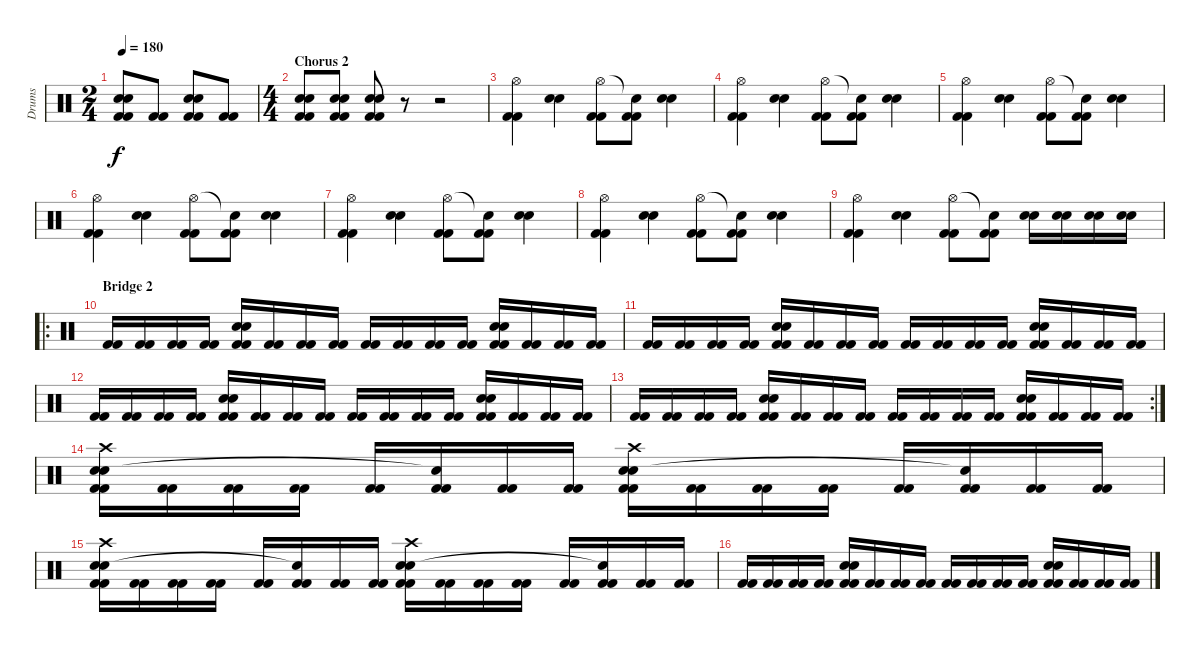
\track ("Drums" "Drums") {instrument percussion}
\staff {score}
\articulation defaults
\ts (2 4)
\tempo 180
\clef neutral
\ks c
("Kick (hit) 2" "Kick (hit) 2" "Electric Snare (hit)" "Electric Snare (hit)").8{dy f} ("Kick (hit) 2" "Kick (hit) 2").8 ("Kick (hit) 2" "Kick (hit) 2" "Electric Snare (hit)" "Electric Snare (hit)").8 ("Kick (hit) 2" "Kick (hit) 2").8 |
\ts (4 4)
\section ("" "Chorus 2")
("Kick (hit) 2" "Kick (hit) 2" "Snare (hit) 2" "Snare (hit) 2").8 ("Kick (hit) 2" "Kick (hit) 2" "Electric Snare (hit)" "Electric Snare (hit)").8 ("Kick (hit) 2" "Kick (hit) 2" "Snare (hit) 2" "Snare (hit) 2").8 r.8 r.2 |
("Kick (hit) 2" "Kick (hit) 2" "Hi-Hat (open)").4 ("Electric Snare (hit)" "Electric Snare (hit)").4 ("Kick (hit) 2" "Kick (hit) 2" "Hi-Hat (open)").8 ("Kick (hit) 2" "Kick (hit) 2" "Snare (hit)"{t}).8 ("Electric Snare (hit)" "Electric Snare (hit)").4 |
("Kick (hit) 2" "Kick (hit) 2" "Hi-Hat (open)").4 ("Electric Snare (hit)" "Electric Snare (hit)").4 ("Kick (hit) 2" "Kick (hit) 2" "Hi-Hat (open)").8 ("Kick (hit) 2" "Kick (hit) 2" "Snare (hit)"{t}).8 ("Electric Snare (hit)" "Electric Snare (hit)").4 |
("Kick (hit) 2" "Kick (hit) 2" "Hi-Hat (open)").4 ("Electric Snare (hit)" "Electric Snare (hit)").4 ("Kick (hit) 2" "Kick (hit) 2" "Hi-Hat (open)").8 ("Kick (hit) 2" "Kick (hit) 2" "Snare (hit)"{t}).8 ("Electric Snare (hit)" "Electric Snare (hit)").4 |
("Kick (hit) 2" "Kick (hit) 2" "Hi-Hat (open)").4 ("Electric Snare (hit)" "Electric Snare (hit)").4 ("Kick (hit) 2" "Kick (hit) 2" "Hi-Hat (open)").8 ("Kick (hit) 2" "Kick (hit) 2" "Snare (hit)"{t}).8 ("Electric Snare (hit)" "Electric Snare (hit)").4 |
("Kick (hit) 2" "Kick (hit) 2" "Hi-Hat (open)").4 ("Electric Snare (hit)" "Electric Snare (hit)").4 ("Kick (hit) 2" "Kick (hit) 2" "Hi-Hat (open)").8 ("Kick (hit) 2" "Kick (hit) 2" "Snare (hit)"{t}).8 ("Electric Snare (hit)" "Electric Snare (hit)").4 |
("Kick (hit) 2" "Kick (hit) 2" "Hi-Hat (open)").4 ("Electric Snare (hit)" "Electric Snare (hit)").4 ("Kick (hit) 2" "Kick (hit) 2" "Hi-Hat (open)").8 ("Kick (hit) 2" "Kick (hit) 2" "Snare (hit)"{t}).8 ("Electric Snare (hit)" "Electric Snare (hit)").4 |
("Kick (hit) 2" "Kick (hit) 2" "Hi-Hat (open)").4 ("Electric Snare (hit)" "Electric Snare (hit)").4 ("Kick (hit) 2" "Kick (hit) 2" "Hi-Hat (open)").8 ("Kick (hit) 2" "Kick (hit) 2" "Snare (hit)"{t}).8 ("Snare (hit) 2" "Snare (hit) 2").16 ("Snare (hit) 2" "Snare (hit) 2").16 ("Snare (hit) 2" "Snare (hit) 2").16 ("Snare (hit) 2" "Snare (hit) 2").16 |
\ro
\section ("" "Bridge 2")
("Kick (hit) 2" "Kick (hit) 2").16 ("Kick (hit) 2" "Kick (hit) 2").16 ("Kick (hit) 2" "Kick (hit) 2").16 ("Kick (hit) 2" "Kick (hit) 2").16 ("Electric Snare (hit)" "Electric Snare (hit)" "Kick (hit) 2" "Kick (hit) 2").16 ("Kick (hit) 2" "Kick (hit) 2").16 ("Kick (hit) 2" "Kick (hit) 2").16 ("Kick (hit) 2" "Kick (hit) 2").16 ("Kick (hit) 2" "Kick (hit) 2").16 ("Kick (hit) 2" "Kick (hit) 2").16 ("Kick (hit) 2" "Kick (hit) 2").16 ("Kick (hit) 2" "Kick (hit) 2").16 ("Electric Snare (hit)" "Electric Snare (hit)" "Kick (hit) 2" "Kick (hit) 2").16 ("Kick (hit) 2" "Kick (hit) 2").16 ("Kick (hit) 2" "Kick (hit) 2").16 ("Kick (hit) 2" "Kick (hit) 2").16 |
("Kick (hit) 2" "Kick (hit) 2").16 ("Kick (hit) 2" "Kick (hit) 2").16 ("Kick (hit) 2" "Kick (hit) 2").16 ("Kick (hit) 2" "Kick (hit) 2").16 ("Electric Snare (hit)" "Electric Snare (hit)" "Kick (hit) 2" "Kick (hit) 2").16 ("Kick (hit) 2" "Kick (hit) 2").16 ("Kick (hit) 2" "Kick (hit) 2").16 ("Kick (hit) 2" "Kick (hit) 2").16 ("Kick (hit) 2" "Kick (hit) 2").16 ("Kick (hit) 2" "Kick (hit) 2").16 ("Kick (hit) 2" "Kick (hit) 2").16 ("Kick (hit) 2" "Kick (hit) 2").16 ("Electric Snare (hit)" "Electric Snare (hit)" "Kick (hit) 2" "Kick (hit) 2").16 ("Kick (hit) 2" "Kick (hit) 2").16 ("Kick (hit) 2" "Kick (hit) 2").16 ("Kick (hit) 2" "Kick (hit) 2").16 |
("Kick (hit) 2" "Kick (hit) 2").16 ("Kick (hit) 2" "Kick (hit) 2").16 ("Kick (hit) 2" "Kick (hit) 2").16 ("Kick (hit) 2" "Kick (hit) 2").16 ("Electric Snare (hit)" "Electric Snare (hit)" "Kick (hit) 2" "Kick (hit) 2").16 ("Kick (hit) 2" "Kick (hit) 2").16 ("Kick (hit) 2" "Kick (hit) 2").16 ("Kick (hit) 2" "Kick (hit) 2").16 ("Kick (hit) 2" "Kick (hit) 2").16 ("Kick (hit) 2" "Kick (hit) 2").16 ("Kick (hit) 2" "Kick (hit) 2").16 ("Kick (hit) 2" "Kick (hit) 2").16 ("Electric Snare (hit)" "Electric Snare (hit)" "Kick (hit) 2" "Kick (hit) 2").16 ("Kick (hit) 2" "Kick (hit) 2").16 ("Kick (hit) 2" "Kick (hit) 2").16 ("Kick (hit) 2" "Kick (hit) 2").16 |
\rc 2
("Kick (hit) 2" "Kick (hit) 2").16 ("Kick (hit) 2" "Kick (hit) 2").16 ("Kick (hit) 2" "Kick (hit) 2").16 ("Kick (hit) 2" "Kick (hit) 2").16 ("Electric Snare (hit)" "Electric Snare (hit)" "Kick (hit) 2" "Kick (hit) 2").16 ("Kick (hit) 2" "Kick (hit) 2").16 ("Kick (hit) 2" "Kick (hit) 2").16 ("Kick (hit) 2" "Kick (hit) 2").16 ("Kick (hit) 2" "Kick (hit) 2").16 ("Kick (hit) 2" "Kick (hit) 2").16 ("Kick (hit) 2" "Kick (hit) 2").16 ("Kick (hit) 2" "Kick (hit) 2").16 ("Electric Snare (hit)" "Electric Snare (hit)" "Kick (hit) 2" "Kick (hit) 2").16 ("Kick (hit) 2" "Kick (hit) 2").16 ("Kick (hit) 2" "Kick (hit) 2").16 ("Kick (hit) 2" "Kick (hit) 2").16 |
("Kick (hit) 2" "Kick (hit) 2" "Snare (hit) 2" "Snare (hit) 2" "Crash high (hit)").16 ("Kick (hit) 2" "Kick (hit) 2").16 ("Kick (hit) 2" "Kick (hit) 2").16 ("Kick (hit) 2" "Kick (hit) 2").16 ("Kick (hit) 2" "Kick (hit) 2").16 ("Kick (hit) 2" "Kick (hit) 2" "Snare (hit)"{t}).16 ("Kick (hit) 2" "Kick (hit) 2").16 ("Kick (hit) 2" "Kick (hit) 2").16 ("Kick (hit) 2" "Kick (hit) 2" "Snare (hit) 2" "Snare (hit) 2" "Crash high (hit)").16 ("Kick (hit) 2" "Kick (hit) 2").16 ("Kick (hit) 2" "Kick (hit) 2").16 ("Kick (hit) 2" "Kick (hit) 2").16 ("Kick (hit) 2" "Kick (hit) 2").16 ("Kick (hit) 2" "Kick (hit) 2" "Snare (hit)"{t}).16 ("Kick (hit) 2" "Kick (hit) 2").16 ("Kick (hit) 2" "Kick (hit) 2").16 |
("Kick (hit) 2" "Kick (hit) 2" "Snare (hit) 2" "Snare (hit) 2" "Crash high (hit)").16 ("Kick (hit) 2" "Kick (hit) 2").16 ("Kick (hit) 2" "Kick (hit) 2").16 ("Kick (hit) 2" "Kick (hit) 2").16 ("Kick (hit) 2" "Kick (hit) 2").16 ("Kick (hit) 2" "Kick (hit) 2" "Snare (hit)"{t}).16 ("Kick (hit) 2" "Kick (hit) 2").16 ("Kick (hit) 2" "Kick (hit) 2").16 ("Kick (hit) 2" "Kick (hit) 2" "Snare (hit) 2" "Snare (hit) 2" "Crash high (hit)").16 ("Kick (hit) 2" "Kick (hit) 2").16 ("Kick (hit) 2" "Kick (hit) 2").16 ("Kick (hit) 2" "Kick (hit) 2").16 ("Kick (hit) 2" "Kick (hit) 2").16 ("Kick (hit) 2" "Kick (hit) 2" "Snare (hit)"{t}).16 ("Kick (hit) 2" "Kick (hit) 2").16 ("Kick (hit) 2" "Kick (hit) 2").16 |
("Kick (hit) 2" "Kick (hit) 2").16 ("Kick (hit) 2" "Kick (hit) 2").16 ("Kick (hit) 2" "Kick (hit) 2").16 ("Kick (hit) 2" "Kick (hit) 2").16 ("Electric Snare (hit)" "Electric Snare (hit)" "Kick (hit) 2" "Kick (hit) 2").16 ("Kick (hit) 2" "Kick (hit) 2").16 ("Kick (hit) 2" "Kick (hit) 2").16 ("Kick (hit) 2" "Kick (hit) 2").16 ("Kick (hit) 2" "Kick (hit) 2").16 ("Kick (hit) 2" "Kick (hit) 2").16 ("Kick (hit) 2" "Kick (hit) 2").16 ("Kick (hit) 2" "Kick (hit) 2").16 ("Electric Snare (hit)" "Electric Snare (hit)" "Kick (hit) 2" "Kick (hit) 2").16 ("Kick (hit) 2" "Kick (hit) 2").16 ("Kick (hit) 2" "Kick (hit) 2").16 ("Kick (hit) 2" "Kick (hit) 2").16
